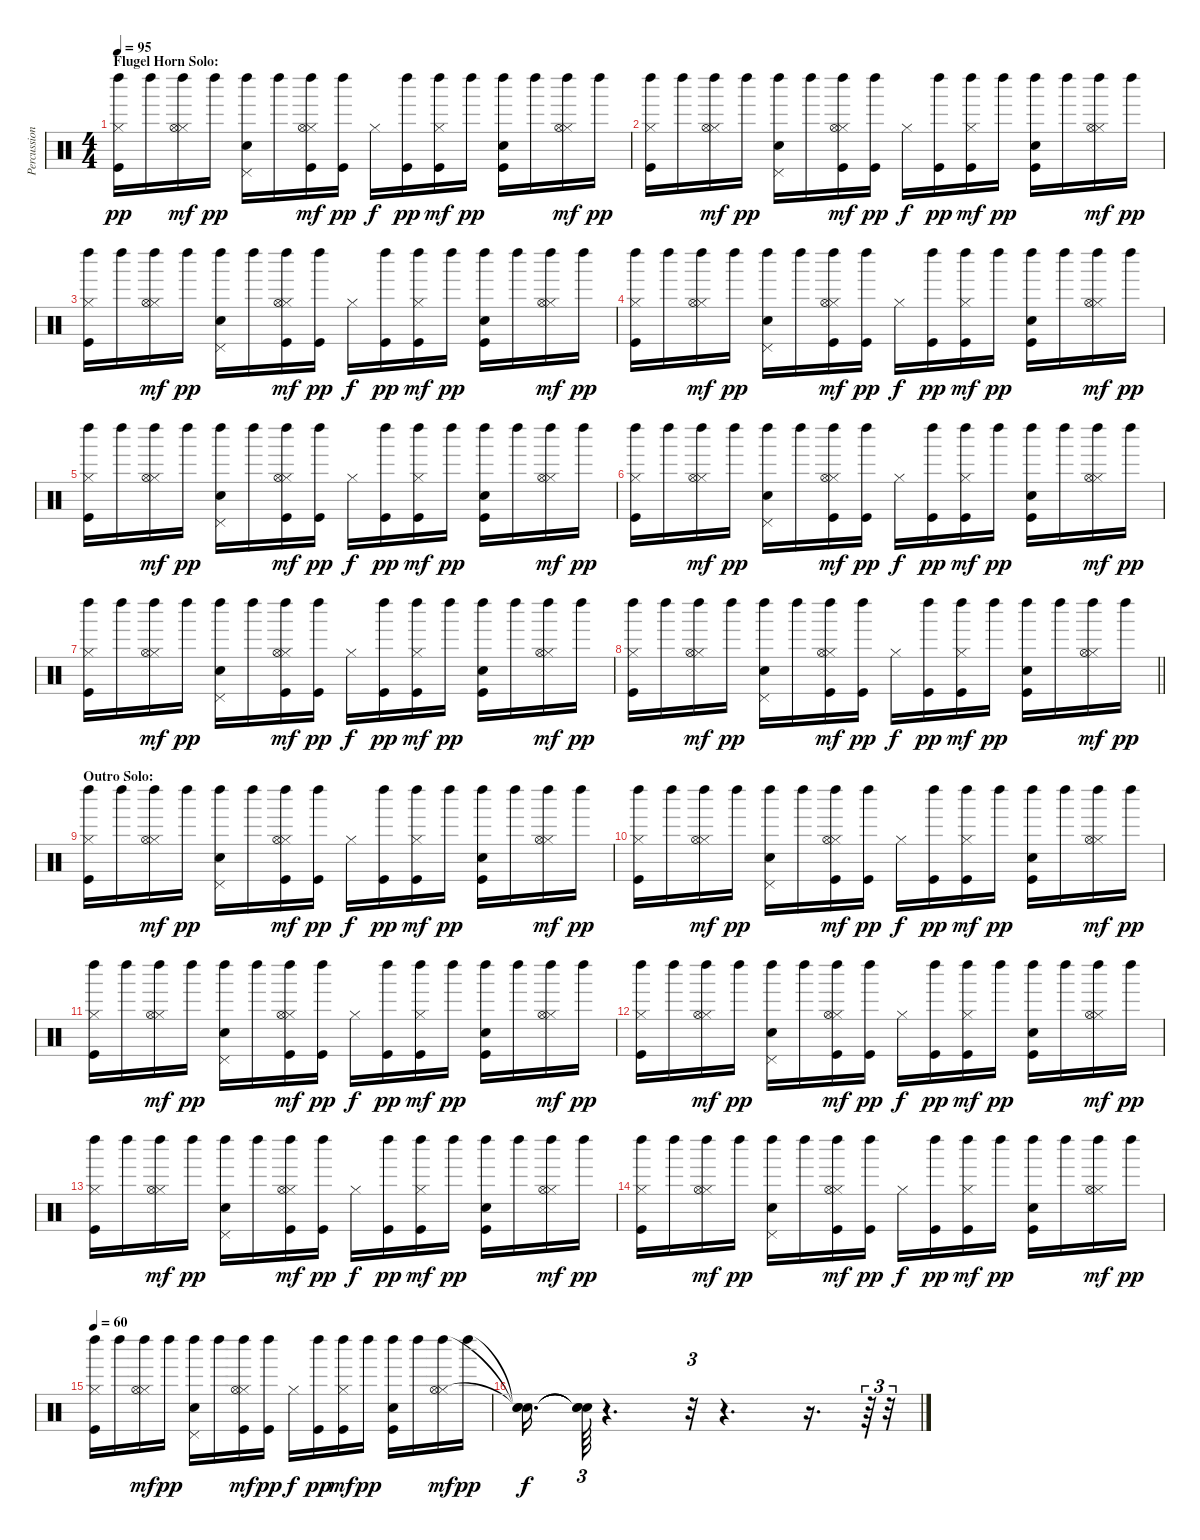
\track ("Percussion" "Percussion") {instrument percussion}
\staff {score}
\articulation defaults
\ts (4 4)
\section ("" "Flugel Horn Solo:")
\tempo 95
\clef neutral
\ks c
("Kick (hit)" "Hi-Hat (closed)" "Left Maraca (hit)").16{dy pp} "Left Maraca (hit)".16 ("Hi-Hat (closed)" "Hi-Hat (open)" "Left Maraca (hit)").16{dy mf} "Left Maraca (hit)".16{dy pp} ("Snare (hit) 2" "Pedal Hi-Hat (hit)" "Left Maraca (hit)").16 "Left Maraca (hit)".16 ("Kick (hit)" "Hi-Hat (closed)" "Hi-Hat (open)" "Left Maraca (hit)").16{dy mf} ("Left Maraca (hit)" "Kick (hit)").16{dy pp} "Hi-Hat (closed)".16{dy f} ("Left Maraca (hit)" "Kick (hit)").16{dy pp} ("Hi-Hat (closed)" "Kick (hit)" "Left Maraca (hit)").16{dy mf} "Left Maraca (hit)".16{dy pp} ("Snare (hit) 2" "Kick (hit)" "Left Maraca (hit)").16 "Left Maraca (hit)".16 ("Hi-Hat (closed)" "Hi-Hat (open)" "Left Maraca (hit)").16{dy mf} "Left Maraca (hit)".16{dy pp} |
("Kick (hit)" "Hi-Hat (closed)" "Left Maraca (hit)").16 "Left Maraca (hit)".16 ("Hi-Hat (closed)" "Hi-Hat (open)" "Left Maraca (hit)").16{dy mf} "Left Maraca (hit)".16{dy pp} ("Snare (hit) 2" "Pedal Hi-Hat (hit)" "Left Maraca (hit)").16 "Left Maraca (hit)".16 ("Kick (hit)" "Hi-Hat (closed)" "Hi-Hat (open)" "Left Maraca (hit)").16{dy mf} ("Left Maraca (hit)" "Kick (hit)").16{dy pp} "Hi-Hat (closed)".16{dy f} ("Left Maraca (hit)" "Kick (hit)").16{dy pp} ("Hi-Hat (closed)" "Kick (hit)" "Left Maraca (hit)").16{dy mf} "Left Maraca (hit)".16{dy pp} ("Snare (hit) 2" "Kick (hit)" "Left Maraca (hit)").16 "Left Maraca (hit)".16 ("Hi-Hat (closed)" "Hi-Hat (open)" "Left Maraca (hit)").16{dy mf} "Left Maraca (hit)".16{dy pp} |
("Kick (hit)" "Hi-Hat (closed)" "Left Maraca (hit)").16 "Left Maraca (hit)".16 ("Hi-Hat (closed)" "Hi-Hat (open)" "Left Maraca (hit)").16{dy mf} "Left Maraca (hit)".16{dy pp} ("Snare (hit) 2" "Pedal Hi-Hat (hit)" "Left Maraca (hit)").16 "Left Maraca (hit)".16 ("Kick (hit)" "Hi-Hat (closed)" "Hi-Hat (open)" "Left Maraca (hit)").16{dy mf} ("Left Maraca (hit)" "Kick (hit)").16{dy pp} "Hi-Hat (closed)".16{dy f} ("Left Maraca (hit)" "Kick (hit)").16{dy pp} ("Hi-Hat (closed)" "Kick (hit)" "Left Maraca (hit)").16{dy mf} "Left Maraca (hit)".16{dy pp} ("Snare (hit) 2" "Kick (hit)" "Left Maraca (hit)").16 "Left Maraca (hit)".16 ("Hi-Hat (closed)" "Hi-Hat (open)" "Left Maraca (hit)").16{dy mf} "Left Maraca (hit)".16{dy pp} |
("Kick (hit)" "Hi-Hat (closed)" "Left Maraca (hit)").16 "Left Maraca (hit)".16 ("Hi-Hat (closed)" "Hi-Hat (open)" "Left Maraca (hit)").16{dy mf} "Left Maraca (hit)".16{dy pp} ("Snare (hit) 2" "Pedal Hi-Hat (hit)" "Left Maraca (hit)").16 "Left Maraca (hit)".16 ("Kick (hit)" "Hi-Hat (closed)" "Hi-Hat (open)" "Left Maraca (hit)").16{dy mf} ("Left Maraca (hit)" "Kick (hit)").16{dy pp} "Hi-Hat (closed)".16{dy f} ("Left Maraca (hit)" "Kick (hit)").16{dy pp} ("Hi-Hat (closed)" "Kick (hit)" "Left Maraca (hit)").16{dy mf} "Left Maraca (hit)".16{dy pp} ("Snare (hit) 2" "Kick (hit)" "Left Maraca (hit)").16 "Left Maraca (hit)".16 ("Hi-Hat (closed)" "Hi-Hat (open)" "Left Maraca (hit)").16{dy mf} "Left Maraca (hit)".16{dy pp} |
("Kick (hit)" "Hi-Hat (closed)" "Left Maraca (hit)").16 "Left Maraca (hit)".16 ("Hi-Hat (closed)" "Hi-Hat (open)" "Left Maraca (hit)").16{dy mf} "Left Maraca (hit)".16{dy pp} ("Snare (hit) 2" "Pedal Hi-Hat (hit)" "Left Maraca (hit)").16 "Left Maraca (hit)".16 ("Kick (hit)" "Hi-Hat (closed)" "Hi-Hat (open)" "Left Maraca (hit)").16{dy mf} ("Left Maraca (hit)" "Kick (hit)").16{dy pp} "Hi-Hat (closed)".16{dy f} ("Left Maraca (hit)" "Kick (hit)").16{dy pp} ("Hi-Hat (closed)" "Kick (hit)" "Left Maraca (hit)").16{dy mf} "Left Maraca (hit)".16{dy pp} ("Snare (hit) 2" "Kick (hit)" "Left Maraca (hit)").16 "Left Maraca (hit)".16 ("Hi-Hat (closed)" "Hi-Hat (open)" "Left Maraca (hit)").16{dy mf} "Left Maraca (hit)".16{dy pp} |
("Kick (hit)" "Hi-Hat (closed)" "Left Maraca (hit)").16 "Left Maraca (hit)".16 ("Hi-Hat (closed)" "Hi-Hat (open)" "Left Maraca (hit)").16{dy mf} "Left Maraca (hit)".16{dy pp} ("Snare (hit) 2" "Pedal Hi-Hat (hit)" "Left Maraca (hit)").16 "Left Maraca (hit)".16 ("Kick (hit)" "Hi-Hat (closed)" "Hi-Hat (open)" "Left Maraca (hit)").16{dy mf} ("Left Maraca (hit)" "Kick (hit)").16{dy pp} "Hi-Hat (closed)".16{dy f} ("Left Maraca (hit)" "Kick (hit)").16{dy pp} ("Hi-Hat (closed)" "Kick (hit)" "Left Maraca (hit)").16{dy mf} "Left Maraca (hit)".16{dy pp} ("Snare (hit) 2" "Kick (hit)" "Left Maraca (hit)").16 "Left Maraca (hit)".16 ("Hi-Hat (closed)" "Hi-Hat (open)" "Left Maraca (hit)").16{dy mf} "Left Maraca (hit)".16{dy pp} |
("Kick (hit)" "Hi-Hat (closed)" "Left Maraca (hit)").16 "Left Maraca (hit)".16 ("Hi-Hat (closed)" "Hi-Hat (open)" "Left Maraca (hit)").16{dy mf} "Left Maraca (hit)".16{dy pp} ("Snare (hit) 2" "Pedal Hi-Hat (hit)" "Left Maraca (hit)").16 "Left Maraca (hit)".16 ("Kick (hit)" "Hi-Hat (closed)" "Hi-Hat (open)" "Left Maraca (hit)").16{dy mf} ("Left Maraca (hit)" "Kick (hit)").16{dy pp} "Hi-Hat (closed)".16{dy f} ("Left Maraca (hit)" "Kick (hit)").16{dy pp} ("Hi-Hat (closed)" "Kick (hit)" "Left Maraca (hit)").16{dy mf} "Left Maraca (hit)".16{dy pp} ("Snare (hit) 2" "Kick (hit)" "Left Maraca (hit)").16 "Left Maraca (hit)".16 ("Hi-Hat (closed)" "Hi-Hat (open)" "Left Maraca (hit)").16{dy mf} "Left Maraca (hit)".16{dy pp} |
\barLineRight lightlight
("Kick (hit)" "Hi-Hat (closed)" "Left Maraca (hit)").16 "Left Maraca (hit)".16 ("Hi-Hat (closed)" "Hi-Hat (open)" "Left Maraca (hit)").16{dy mf} "Left Maraca (hit)".16{dy pp} ("Snare (hit) 2" "Pedal Hi-Hat (hit)" "Left Maraca (hit)").16 "Left Maraca (hit)".16 ("Kick (hit)" "Hi-Hat (closed)" "Hi-Hat (open)" "Left Maraca (hit)").16{dy mf} ("Left Maraca (hit)" "Kick (hit)").16{dy pp} "Hi-Hat (closed)".16{dy f} ("Left Maraca (hit)" "Kick (hit)").16{dy pp} ("Hi-Hat (closed)" "Kick (hit)" "Left Maraca (hit)").16{dy mf} "Left Maraca (hit)".16{dy pp} ("Snare (hit) 2" "Kick (hit)" "Left Maraca (hit)").16 "Left Maraca (hit)".16 ("Hi-Hat (closed)" "Hi-Hat (open)" "Left Maraca (hit)").16{dy mf} "Left Maraca (hit)".16{dy pp} |
\section ("" "Outro Solo:")
("Kick (hit)" "Hi-Hat (closed)" "Left Maraca (hit)").16 "Left Maraca (hit)".16 ("Hi-Hat (closed)" "Hi-Hat (open)" "Left Maraca (hit)").16{dy mf} "Left Maraca (hit)".16{dy pp} ("Snare (hit) 2" "Pedal Hi-Hat (hit)" "Left Maraca (hit)").16 "Left Maraca (hit)".16 ("Kick (hit)" "Hi-Hat (closed)" "Hi-Hat (open)" "Left Maraca (hit)").16{dy mf} ("Left Maraca (hit)" "Kick (hit)").16{dy pp} "Hi-Hat (closed)".16{dy f} ("Left Maraca (hit)" "Kick (hit)").16{dy pp} ("Hi-Hat (closed)" "Kick (hit)" "Left Maraca (hit)").16{dy mf} "Left Maraca (hit)".16{dy pp} ("Snare (hit) 2" "Kick (hit)" "Left Maraca (hit)").16 "Left Maraca (hit)".16 ("Hi-Hat (closed)" "Hi-Hat (open)" "Left Maraca (hit)").16{dy mf} "Left Maraca (hit)".16{dy pp} |
("Kick (hit)" "Hi-Hat (closed)" "Left Maraca (hit)").16 "Left Maraca (hit)".16 ("Hi-Hat (closed)" "Hi-Hat (open)" "Left Maraca (hit)").16{dy mf} "Left Maraca (hit)".16{dy pp} ("Snare (hit) 2" "Pedal Hi-Hat (hit)" "Left Maraca (hit)").16 "Left Maraca (hit)".16 ("Kick (hit)" "Hi-Hat (closed)" "Hi-Hat (open)" "Left Maraca (hit)").16{dy mf} ("Left Maraca (hit)" "Kick (hit)").16{dy pp} "Hi-Hat (closed)".16{dy f} ("Left Maraca (hit)" "Kick (hit)").16{dy pp} ("Hi-Hat (closed)" "Kick (hit)" "Left Maraca (hit)").16{dy mf} "Left Maraca (hit)".16{dy pp} ("Snare (hit) 2" "Kick (hit)" "Left Maraca (hit)").16 "Left Maraca (hit)".16 ("Hi-Hat (closed)" "Hi-Hat (open)" "Left Maraca (hit)").16{dy mf} "Left Maraca (hit)".16{dy pp} |
("Kick (hit)" "Hi-Hat (closed)" "Left Maraca (hit)").16 "Left Maraca (hit)".16 ("Hi-Hat (closed)" "Hi-Hat (open)" "Left Maraca (hit)").16{dy mf} "Left Maraca (hit)".16{dy pp} ("Snare (hit) 2" "Pedal Hi-Hat (hit)" "Left Maraca (hit)").16 "Left Maraca (hit)".16 ("Kick (hit)" "Hi-Hat (closed)" "Hi-Hat (open)" "Left Maraca (hit)").16{dy mf} ("Left Maraca (hit)" "Kick (hit)").16{dy pp} "Hi-Hat (closed)".16{dy f} ("Left Maraca (hit)" "Kick (hit)").16{dy pp} ("Hi-Hat (closed)" "Kick (hit)" "Left Maraca (hit)").16{dy mf} "Left Maraca (hit)".16{dy pp} ("Snare (hit) 2" "Kick (hit)" "Left Maraca (hit)").16 "Left Maraca (hit)".16 ("Hi-Hat (closed)" "Hi-Hat (open)" "Left Maraca (hit)").16{dy mf} "Left Maraca (hit)".16{dy pp} |
("Kick (hit)" "Hi-Hat (closed)" "Left Maraca (hit)").16 "Left Maraca (hit)".16 ("Hi-Hat (closed)" "Hi-Hat (open)" "Left Maraca (hit)").16{dy mf} "Left Maraca (hit)".16{dy pp} ("Snare (hit) 2" "Pedal Hi-Hat (hit)" "Left Maraca (hit)").16 "Left Maraca (hit)".16 ("Kick (hit)" "Hi-Hat (closed)" "Hi-Hat (open)" "Left Maraca (hit)").16{dy mf} ("Left Maraca (hit)" "Kick (hit)").16{dy pp} "Hi-Hat (closed)".16{dy f} ("Left Maraca (hit)" "Kick (hit)").16{dy pp} ("Hi-Hat (closed)" "Kick (hit)" "Left Maraca (hit)").16{dy mf} "Left Maraca (hit)".16{dy pp} ("Snare (hit) 2" "Kick (hit)" "Left Maraca (hit)").16 "Left Maraca (hit)".16 ("Hi-Hat (closed)" "Hi-Hat (open)" "Left Maraca (hit)").16{dy mf} "Left Maraca (hit)".16{dy pp} |
("Kick (hit)" "Hi-Hat (closed)" "Left Maraca (hit)").16 "Left Maraca (hit)".16 ("Hi-Hat (closed)" "Hi-Hat (open)" "Left Maraca (hit)").16{dy mf} "Left Maraca (hit)".16{dy pp} ("Snare (hit) 2" "Pedal Hi-Hat (hit)" "Left Maraca (hit)").16 "Left Maraca (hit)".16 ("Kick (hit)" "Hi-Hat (closed)" "Hi-Hat (open)" "Left Maraca (hit)").16{dy mf} ("Left Maraca (hit)" "Kick (hit)").16{dy pp} "Hi-Hat (closed)".16{dy f} ("Left Maraca (hit)" "Kick (hit)").16{dy pp} ("Hi-Hat (closed)" "Kick (hit)" "Left Maraca (hit)").16{dy mf} "Left Maraca (hit)".16{dy pp} ("Snare (hit) 2" "Kick (hit)" "Left Maraca (hit)").16 "Left Maraca (hit)".16 ("Hi-Hat (closed)" "Hi-Hat (open)" "Left Maraca (hit)").16{dy mf} "Left Maraca (hit)".16{dy pp} |
("Kick (hit)" "Hi-Hat (closed)" "Left Maraca (hit)").16 "Left Maraca (hit)".16 ("Hi-Hat (closed)" "Hi-Hat (open)" "Left Maraca (hit)").16{dy mf} "Left Maraca (hit)".16{dy pp} ("Snare (hit) 2" "Pedal Hi-Hat (hit)" "Left Maraca (hit)").16 "Left Maraca (hit)".16 ("Kick (hit)" "Hi-Hat (closed)" "Hi-Hat (open)" "Left Maraca (hit)").16{dy mf} ("Left Maraca (hit)" "Kick (hit)").16{dy pp} "Hi-Hat (closed)".16{dy f} ("Left Maraca (hit)" "Kick (hit)").16{dy pp} ("Hi-Hat (closed)" "Kick (hit)" "Left Maraca (hit)").16{dy mf} "Left Maraca (hit)".16{dy pp} ("Snare (hit) 2" "Kick (hit)" "Left Maraca (hit)").16 "Left Maraca (hit)".16 ("Hi-Hat (closed)" "Hi-Hat (open)" "Left Maraca (hit)").16{dy mf} "Left Maraca (hit)".16{dy pp} |
\tempo 60
("Kick (hit)" "Hi-Hat (closed)" "Left Maraca (hit)").16 "Left Maraca (hit)".16 ("Hi-Hat (closed)" "Hi-Hat (open)" "Left Maraca (hit)").16{dy mf} "Left Maraca (hit)".16{dy pp} ("Snare (hit) 2" "Pedal Hi-Hat (hit)" "Left Maraca (hit)").16 "Left Maraca (hit)".16 ("Kick (hit)" "Hi-Hat (closed)" "Hi-Hat (open)" "Left Maraca (hit)").16{dy mf} ("Left Maraca (hit)" "Kick (hit)").16{dy pp} "Hi-Hat (closed)".16{dy f} ("Left Maraca (hit)" "Kick (hit)").16{dy pp} ("Hi-Hat (closed)" "Kick (hit)" "Left Maraca (hit)").16{dy mf} "Left Maraca (hit)".16{dy pp} ("Snare (hit) 2" "Kick (hit)" "Left Maraca (hit)").16 "Left Maraca (hit)".16 ("Hi-Hat (closed)" "Hi-Hat (open)" "Left Maraca (hit)").16{dy mf} "Left Maraca (hit)".16{dy pp} |
("Snare (hit)"{t} "Snare (hit)"{t} "Snare (hit)"{t}).16{d dy f} ("Snare (hit)"{t} "Snare (hit)"{t} "Snare (hit)"{t}).64{tu (3 2)} r.4{d} r.32{tu (3 2)} r.4{d} r.16{d} r.64{tu (3 2)} r.32{tu (3 2)}
